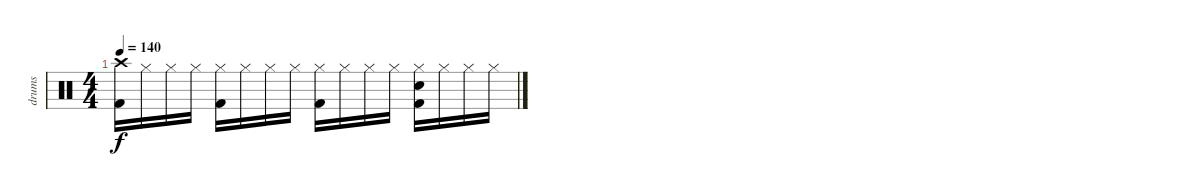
\track ("drums" "drums") {instrument percussion}
\staff {score}
\articulation defaults
\ts (4 4)
\tempo 140
\clef neutral
\ks c
("Crash high (hit)" "Kick (hit) 2").16{dy f} "Hi-Hat (closed)".16 "Hi-Hat (closed)".16 "Hi-Hat (closed)".16 ("Hi-Hat (closed)" "Kick (hit) 2").16 "Hi-Hat (closed)".16 "Hi-Hat (closed)".16 "Hi-Hat (closed)".16 ("Hi-Hat (closed)" "Kick (hit) 2").16 "Hi-Hat (closed)".16 "Hi-Hat (closed)".16 "Hi-Hat (closed)".16 ("Hi-Hat (closed)" "Electric Snare (hit)" "Kick (hit) 2").16 "Hi-Hat (closed)".16 "Hi-Hat (closed)".16 "Hi-Hat (closed)".16
